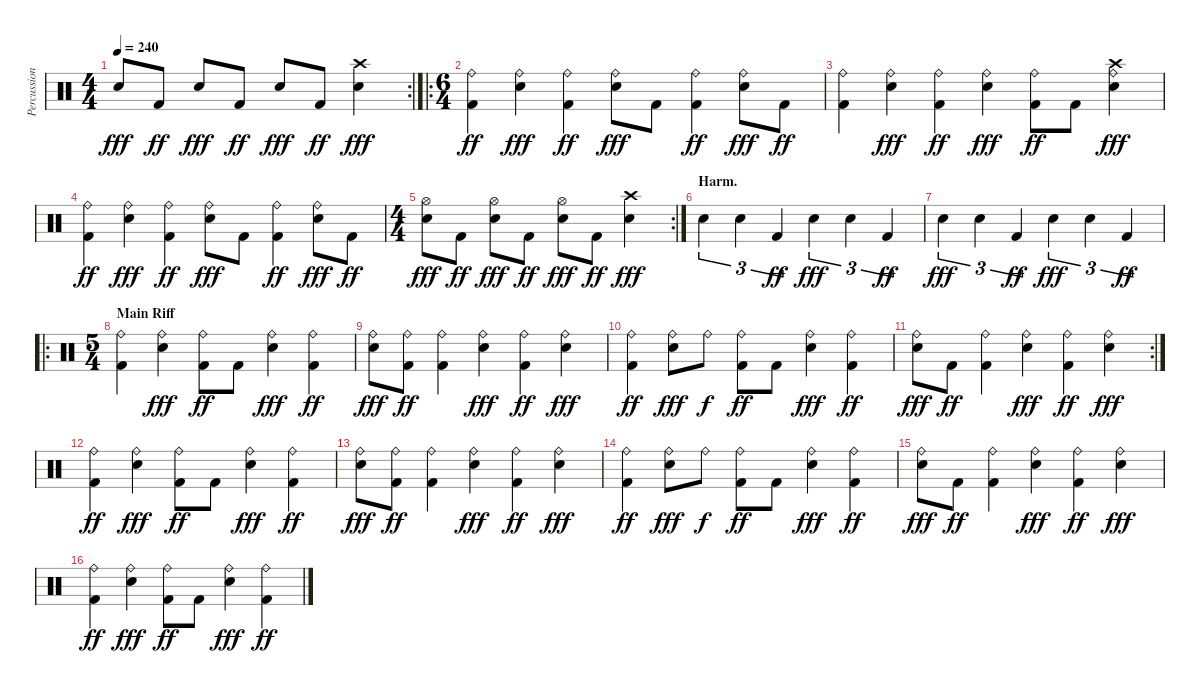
\track ("Percussion" "Percussion") {instrument percussion}
\staff {score}
\articulation defaults
\rc 2
\ts (4 4)
\tempo 240
\clef neutral
\ks c "Snare (hit) 2".8{dy fff} "Kick (hit) 2".8{dy ff} "Snare (hit) 2".8{dy fff} "Kick (hit) 2".8{dy ff} "Snare (hit) 2".8{dy fff} "Kick (hit) 2".8{dy ff}
("Crash high (hit)" "Snare (hit) 2").4{dy fff} |
\ro
\ts (6 4)
("Ride (bell)" "Kick (hit) 2").4{dy ff} ("Ride (bell)" "Snare (hit) 2").4{dy fff} ("Ride (bell)" "Kick (hit) 2").4{dy ff} ("Ride (bell)" "Snare (hit) 2").8{dy fff} "Kick (hit) 2".8 ("Ride (bell)" "Kick (hit) 2").4{dy ff} ("Ride (bell)" "Snare (hit) 2").8{dy fff} "Kick (hit) 2".8{dy ff} |
("Ride (bell)" "Kick (hit) 2").4 ("Ride (bell)" "Snare (hit) 2").4{dy fff} ("Ride (bell)" "Kick (hit) 2").4{dy ff} ("Ride (bell)" "Snare (hit) 2").4{dy fff} ("Ride (bell)" "Kick (hit) 2").8{dy ff} "Kick (hit) 2".8 ("Ride (bell)" "Crash high (hit)" "Snare (hit) 2").4{dy fff} |
("Ride (bell)" "Kick (hit) 2").4{dy ff} ("Ride (bell)" "Snare (hit) 2").4{dy fff} ("Ride (bell)" "Kick (hit) 2").4{dy ff} ("Ride (bell)" "Snare (hit) 2").8{dy fff} "Kick (hit) 2".8 ("Ride (bell)" "Kick (hit) 2").4{dy ff} ("Ride (bell)" "Snare (hit) 2").8{dy fff} "Kick (hit) 2".8{dy ff} |
\rc 2
\ts (4 4)
("Hi-Hat (open)" "Snare (hit) 2").8{dy fff} "Kick (hit) 2".8{dy ff} ("Hi-Hat (open)" "Snare (hit) 2").8{dy fff} "Kick (hit) 2".8{dy ff} ("Hi-Hat (open)" "Snare (hit) 2").8{dy fff} "Kick (hit) 2".8{dy ff} ("Crash high (hit)" "Snare (hit) 2").4{dy fff} |
\section ("" "Harm. ")
"Snare (hit) 2".4{tu (3 2)} "Snare (hit) 2".4{tu (3 2)} "Kick (hit) 2".4{tu (3 2) dy ff} "Snare (hit) 2".4{tu (3 2) dy fff} "Snare (hit) 2".4{tu (3 2)} "Kick (hit) 2".4{tu (3 2) dy ff} |
"Snare (hit) 2".4{tu (3 2) dy fff} "Snare (hit) 2".4{tu (3 2)} "Kick (hit) 2".4{tu (3 2) dy ff} "Snare (hit) 2".4{tu (3 2) dy fff} "Snare (hit) 2".4{tu (3 2)} "Kick (hit) 2".4{tu (3 2) dy ff} |
\ro
\ts (5 4)
\section ("" "Main Riff")
("Ride (bell)" "Kick (hit) 2").4 ("Ride (bell)" "Snare (hit) 2").4{dy fff} ("Ride (bell)" "Kick (hit) 2").8{dy ff} "Kick (hit) 2".8 ("Ride (bell)" "Snare (hit) 2").4{dy fff} ("Ride (bell)" "Kick (hit) 2").4{dy ff} |
("Ride (bell)" "Snare (hit) 2").8{dy fff} ("Ride (bell)" "Kick (hit) 2").8{dy ff} ("Ride (bell)" "Kick (hit) 2").4 ("Ride (bell)" "Snare (hit) 2").4{dy fff} ("Ride (bell)" "Kick (hit) 2").4{dy ff} ("Ride (bell)" "Snare (hit) 2").4{dy fff} |
("Ride (bell)" "Kick (hit) 2").4{dy ff} ("Ride (bell)" "Snare (hit) 2").8{dy fff} "Ride (bell)".8{dy f} ("Ride (bell)" "Kick (hit) 2").8{dy ff} "Kick (hit) 2".8 ("Ride (bell)" "Snare (hit) 2").4{dy fff} ("Ride (bell)" "Kick (hit) 2").4{dy ff} |
\rc 2
("Ride (bell)" "Snare (hit) 2").8{dy fff} "Kick (hit) 2".8{dy ff} ("Ride (bell)" "Kick (hit) 2").4 ("Ride (bell)" "Snare (hit) 2").4{dy fff} ("Ride (bell)" "Kick (hit) 2").4{dy ff} ("Ride (bell)" "Snare (hit) 2").4{dy fff} |
("Ride (bell)" "Kick (hit) 2").4{dy ff} ("Ride (bell)" "Snare (hit) 2").4{dy fff} ("Ride (bell)" "Kick (hit) 2").8{dy ff} "Kick (hit) 2".8 ("Ride (bell)" "Snare (hit) 2").4{dy fff} ("Ride (bell)" "Kick (hit) 2").4{dy ff} |
("Ride (bell)" "Snare (hit) 2").8{dy fff} ("Ride (bell)" "Kick (hit) 2").8{dy ff} ("Ride (bell)" "Kick (hit) 2").4 ("Ride (bell)" "Snare (hit) 2").4{dy fff} ("Ride (bell)" "Kick (hit) 2").4{dy ff} ("Ride (bell)" "Snare (hit) 2").4{dy fff} |
("Ride (bell)" "Kick (hit) 2").4{dy ff} ("Ride (bell)" "Snare (hit) 2").8{dy fff} "Ride (bell)".8{dy f} ("Ride (bell)" "Kick (hit) 2").8{dy ff} "Kick (hit) 2".8 ("Ride (bell)" "Snare (hit) 2").4{dy fff} ("Ride (bell)" "Kick (hit) 2").4{dy ff} |
("Ride (bell)" "Snare (hit) 2").8{dy fff} "Kick (hit) 2".8{dy ff} ("Ride (bell)" "Kick (hit) 2").4 ("Ride (bell)" "Snare (hit) 2").4{dy fff} ("Ride (bell)" "Kick (hit) 2").4{dy ff} ("Ride (bell)" "Snare (hit) 2").4{dy fff} |
("Ride (bell)" "Kick (hit) 2").4{dy ff} ("Ride (bell)" "Snare (hit) 2").4{dy fff} ("Ride (bell)" "Kick (hit) 2").8{dy ff} "Kick (hit) 2".8 ("Ride (bell)" "Snare (hit) 2").4{dy fff} ("Ride (bell)" "Kick (hit) 2").4{dy ff}
